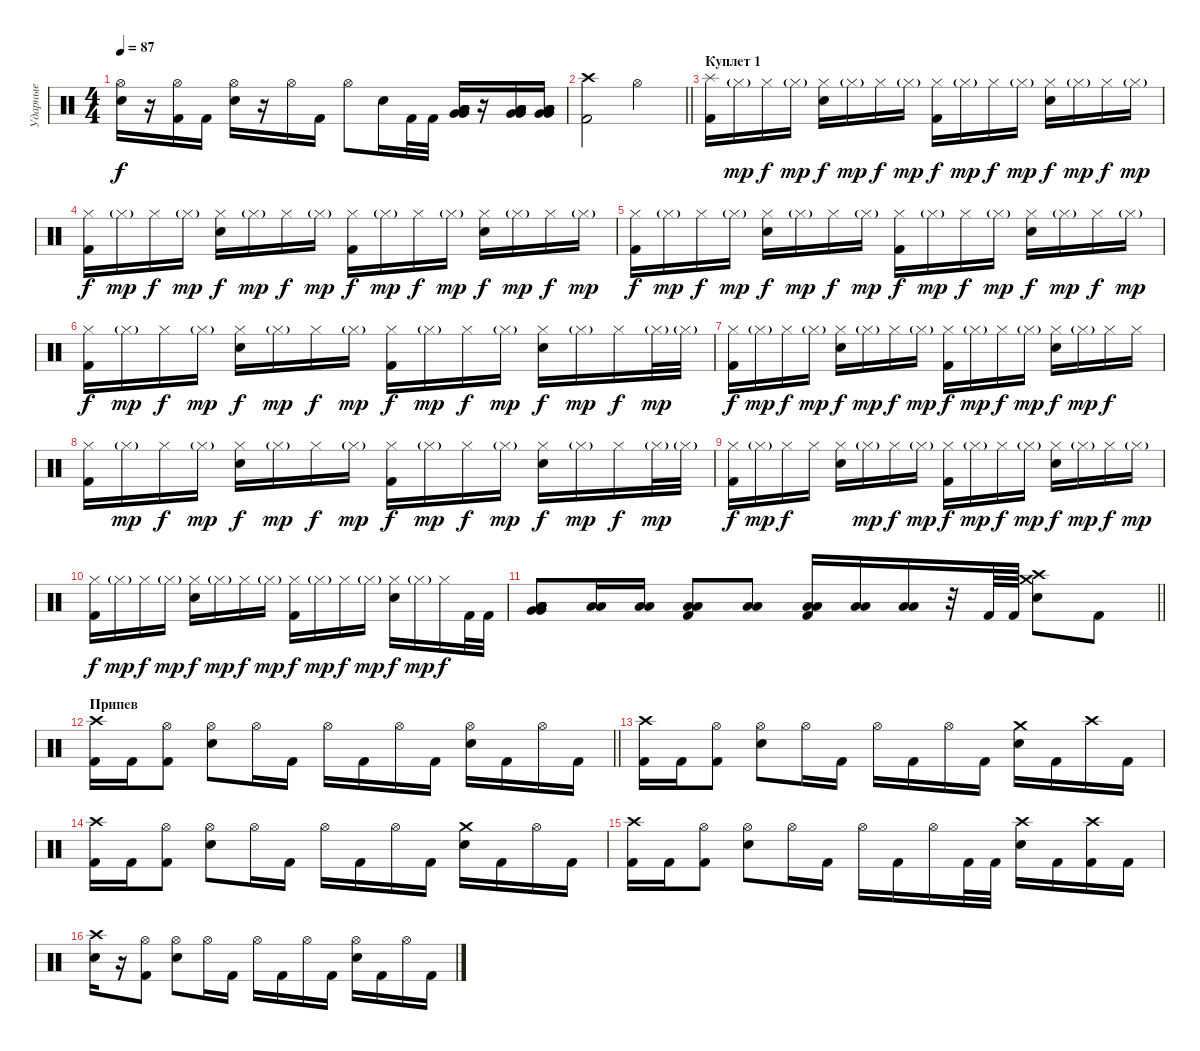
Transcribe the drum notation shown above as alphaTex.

\track ("Ударные" "Ударные") {instrument percussion}
\staff {score}
\articulation defaults
\ts (4 4)
\tempo 87
\clef neutral
\ks c
("Hi-Hat (open)" "Snare (hit) 2").16{dy f} r.16 ("Hi-Hat (open)" "Kick (hit) 2").16 "Kick (hit) 2".16 ("Hi-Hat (open)" "Snare (hit) 2").16 r.16 "Hi-Hat (open)".16 "Kick (hit) 2".16 "Hi-Hat (open)".8 "Snare (hit) 2".16 "Kick (hit) 2".32 "Kick (hit) 2".32 ("Low Tom (hit)" "Low Tom (hit)" "Very Low Tom (hit)" "Very Low Tom (hit)" "Low Floor Tom (hit)" "Low Floor Tom (hit)").16 r.16 ("Low Tom (hit)" "Low Tom (hit)" "Very Low Tom (hit)" "Very Low Tom (hit)" "Low Floor Tom (hit)" "Low Floor Tom (hit)").16 ("Low Tom (hit)" "Low Tom (hit)" "Very Low Tom (hit)" "Very Low Tom (hit)" "Low Floor Tom (hit)" "Low Floor Tom (hit)").16 |
\barLineRight lightlight
("Crash high (hit)" "Kick (hit) 2").2 "Hi-Hat (open)".2 |
\section ("" "Куплет 1")
("Splash (hit)" "Kick (hit) 2").16 "Hi-Hat (closed)"{g}.16{dy mp} "Hi-Hat (closed)".16{dy f} "Hi-Hat (closed)"{g}.16{dy mp} ("Hi-Hat (closed)" "Snare (hit) 2").16{dy f} "Hi-Hat (closed)"{g}.16{dy mp} "Hi-Hat (closed)".16{dy f} "Hi-Hat (closed)"{g}.16{dy mp} ("Hi-Hat (closed)" "Kick (hit) 2").16{dy f} "Hi-Hat (closed)"{g}.16{dy mp} "Hi-Hat (closed)".16{dy f} "Hi-Hat (closed)"{g}.16{dy mp} ("Hi-Hat (closed)" "Snare (hit) 2").16{dy f} "Hi-Hat (closed)"{g}.16{dy mp} "Hi-Hat (closed)".16{dy f} "Hi-Hat (closed)"{g}.16{dy mp} |
("Hi-Hat (closed)" "Kick (hit) 2").16{dy f} "Hi-Hat (closed)"{g}.16{dy mp} "Hi-Hat (closed)".16{dy f} "Hi-Hat (closed)"{g}.16{dy mp} ("Hi-Hat (closed)" "Snare (hit) 2").16{dy f} "Hi-Hat (closed)"{g}.16{dy mp} "Hi-Hat (closed)".16{dy f} "Hi-Hat (closed)"{g}.16{dy mp} ("Hi-Hat (closed)" "Kick (hit) 2").16{dy f} "Hi-Hat (closed)"{g}.16{dy mp} "Hi-Hat (closed)".16{dy f} "Hi-Hat (closed)"{g}.16{dy mp} ("Hi-Hat (closed)" "Snare (hit) 2").16{dy f} "Hi-Hat (closed)"{g}.16{dy mp} "Hi-Hat (closed)".16{dy f} "Hi-Hat (closed)"{g}.16{dy mp} |
("Hi-Hat (closed)" "Kick (hit) 2").16{dy f} "Hi-Hat (closed)"{g}.16{dy mp} "Hi-Hat (closed)".16{dy f} "Hi-Hat (closed)"{g}.16{dy mp} ("Hi-Hat (closed)" "Snare (hit) 2").16{dy f} "Hi-Hat (closed)"{g}.16{dy mp} "Hi-Hat (closed)".16{dy f} "Hi-Hat (closed)"{g}.16{dy mp} ("Hi-Hat (closed)" "Kick (hit) 2").16{dy f} "Hi-Hat (closed)"{g}.16{dy mp} "Hi-Hat (closed)".16{dy f} "Hi-Hat (closed)"{g}.16{dy mp} ("Hi-Hat (closed)" "Snare (hit) 2").16{dy f} "Hi-Hat (closed)"{g}.16{dy mp} "Hi-Hat (closed)".16{dy f} "Hi-Hat (closed)"{g}.16{dy mp} |
("Hi-Hat (closed)" "Kick (hit) 2").16{dy f} "Hi-Hat (closed)"{g}.16{dy mp} "Hi-Hat (closed)".16{dy f} "Hi-Hat (closed)"{g}.16{dy mp} ("Hi-Hat (closed)" "Snare (hit) 2").16{dy f} "Hi-Hat (closed)"{g}.16{dy mp} "Hi-Hat (closed)".16{dy f} "Hi-Hat (closed)"{g}.16{dy mp} ("Hi-Hat (closed)" "Kick (hit) 2").16{dy f} "Hi-Hat (closed)"{g}.16{dy mp} "Hi-Hat (closed)".16{dy f} "Hi-Hat (closed)"{g}.16{dy mp} ("Hi-Hat (closed)" "Snare (hit) 2").16{dy f} "Hi-Hat (closed)"{g}.16{dy mp} "Hi-Hat (closed)".16{dy f} "Hi-Hat (closed)"{g}.32{dy mp} "Hi-Hat (closed)"{g}.32 |
("Hi-Hat (closed)" "Kick (hit) 2").16{dy f} "Hi-Hat (closed)"{g}.16{dy mp} "Hi-Hat (closed)".16{dy f} "Hi-Hat (closed)"{g}.16{dy mp} ("Hi-Hat (closed)" "Snare (hit) 2").16{dy f} "Hi-Hat (closed)"{g}.16{dy mp} "Hi-Hat (closed)".16{dy f} "Hi-Hat (closed)"{g}.16{dy mp} ("Hi-Hat (closed)" "Kick (hit) 2").16{dy f} "Hi-Hat (closed)"{g}.16{dy mp} "Hi-Hat (closed)".16{dy f} "Hi-Hat (closed)"{g}.16{dy mp} ("Hi-Hat (closed)" "Snare (hit) 2").16{dy f} "Hi-Hat (closed)"{g}.16{dy mp} "Hi-Hat (closed)".16{dy f} "Hi-Hat (closed)".16 |
("Hi-Hat (closed)" "Kick (hit) 2").16 "Hi-Hat (closed)"{g}.16{dy mp} "Hi-Hat (closed)".16{dy f} "Hi-Hat (closed)"{g}.16{dy mp} ("Hi-Hat (closed)" "Snare (hit) 2").16{dy f} "Hi-Hat (closed)"{g}.16{dy mp} "Hi-Hat (closed)".16{dy f} "Hi-Hat (closed)"{g}.16{dy mp} ("Hi-Hat (closed)" "Kick (hit) 2").16{dy f} "Hi-Hat (closed)"{g}.16{dy mp} "Hi-Hat (closed)".16{dy f} "Hi-Hat (closed)"{g}.16{dy mp} ("Hi-Hat (closed)" "Snare (hit) 2").16{dy f} "Hi-Hat (closed)"{g}.16{dy mp} "Hi-Hat (closed)".16{dy f} "Hi-Hat (closed)"{g}.32{dy mp} "Hi-Hat (closed)"{g}.32 |
("Hi-Hat (closed)" "Kick (hit) 2").16{dy f} "Hi-Hat (closed)"{g}.16{dy mp} "Hi-Hat (closed)".16{dy f} "Hi-Hat (closed)".16 ("Hi-Hat (closed)" "Snare (hit) 2").16 "Hi-Hat (closed)"{g}.16{dy mp} "Hi-Hat (closed)".16{dy f} "Hi-Hat (closed)"{g}.16{dy mp} ("Hi-Hat (closed)" "Kick (hit) 2").16{dy f} "Hi-Hat (closed)"{g}.16{dy mp} "Hi-Hat (closed)".16{dy f} "Hi-Hat (closed)"{g}.16{dy mp} ("Hi-Hat (closed)" "Snare (hit) 2").16{dy f} "Hi-Hat (closed)"{g}.16{dy mp} "Hi-Hat (closed)".16{dy f} "Hi-Hat (closed)"{g}.16{dy mp} |
("Hi-Hat (closed)" "Kick (hit) 2").16{dy f} "Hi-Hat (closed)"{g}.16{dy mp} "Hi-Hat (closed)".16{dy f} "Hi-Hat (closed)"{g}.16{dy mp} ("Hi-Hat (closed)" "Snare (hit) 2").16{dy f} "Hi-Hat (closed)"{g}.16{dy mp} "Hi-Hat (closed)".16{dy f} "Hi-Hat (closed)"{g}.16{dy mp} ("Hi-Hat (closed)" "Kick (hit) 2").16{dy f} "Hi-Hat (closed)"{g}.16{dy mp} "Hi-Hat (closed)".16{dy f} "Hi-Hat (closed)"{g}.16{dy mp} ("Hi-Hat (closed)" "Snare (hit) 2").16{dy f} "Hi-Hat (closed)"{g}.16{dy mp} "Hi-Hat (closed)".16{dy f} "Kick (hit) 2".32 "Kick (hit) 2".32 |
\barLineRight lightlight
("Low Tom (hit)" "Low Tom (hit)" "Very Low Tom (hit)" "Very Low Tom (hit)" "Low Floor Tom (hit)" "Low Floor Tom (hit)").8 ("Low Tom (hit)" "Low Tom (hit)").16 ("Low Tom (hit)" "Low Tom (hit)").16 ("Low Tom (hit)" "Low Tom (hit)" "Kick (hit) 2").8 ("Low Tom (hit)" "Low Tom (hit)").8 ("Low Tom (hit)" "Low Tom (hit)" "Kick (hit) 2").16 ("Low Tom (hit)" "Low Tom (hit)").16 ("Low Tom (hit)" "Low Tom (hit)").16 r.32 "Kick (hit) 2".64 "Kick (hit) 2".64 ("Snare (hit) 2" "Crash high (hit)" "Crash medium (hit)").8 "Kick (hit) 2".8 |
\section ("" "Припев")
\barLineRight lightlight
("Crash high (hit)" "Kick (hit) 2").16 "Kick (hit) 2".16 ("Hi-Hat (open)" "Kick (hit) 2").8 ("Hi-Hat (open)" "Snare (hit) 2").8 "Hi-Hat (open)".16 "Kick (hit) 2".16 "Hi-Hat (open)".16 "Kick (hit) 2".16 "Hi-Hat (open)".16 "Kick (hit) 2".16 ("Hi-Hat (open)" "Snare (hit) 2").16 "Kick (hit) 2".16 "Hi-Hat (open)".16 "Kick (hit) 2".16 |
("Crash high (hit)" "Kick (hit) 2").16 "Kick (hit) 2".16 ("Hi-Hat (open)" "Kick (hit) 2").8 ("Hi-Hat (open)" "Snare (hit) 2").8 "Hi-Hat (open)".16 "Kick (hit) 2".16 "Hi-Hat (open)".16 "Kick (hit) 2".16 "Hi-Hat (open)".16 "Kick (hit) 2".16 ("Crash medium (hit)" "Snare (hit) 2").16 "Kick (hit) 2".16 "Crash high (hit)".16 "Kick (hit) 2".16 |
("Crash high (hit)" "Kick (hit) 2").16 "Kick (hit) 2".16 ("Hi-Hat (open)" "Kick (hit) 2").8 ("Hi-Hat (open)" "Snare (hit) 2").8 "Hi-Hat (open)".16 "Kick (hit) 2".16 "Hi-Hat (open)".16 "Kick (hit) 2".16 "Hi-Hat (open)".16 "Kick (hit) 2".16 ("Crash medium (hit)" "Snare (hit) 2").16 "Kick (hit) 2".16 "Hi-Hat (open)".16 "Kick (hit) 2".16 |
("Crash high (hit)" "Kick (hit) 2").16 "Kick (hit) 2".16 ("Hi-Hat (open)" "Kick (hit) 2").8 ("Hi-Hat (open)" "Snare (hit) 2").8 "Hi-Hat (open)".16 "Kick (hit) 2".16 "Hi-Hat (open)".16 "Kick (hit) 2".16 "Hi-Hat (open)".16 "Kick (hit) 2".32 "Kick (hit) 2".32 ("Crash high (hit)" "Snare (hit) 2").16 "Kick (hit) 2".16 ("Crash high (hit)" "Kick (hit) 2").16 "Kick (hit) 2".16 |
("Crash high (hit)" "Snare (hit) 2").16 r.16 ("Hi-Hat (open)" "Kick (hit) 2").8 ("Hi-Hat (open)" "Snare (hit) 2").8 "Hi-Hat (open)".16 "Kick (hit) 2".16 "Hi-Hat (open)".16 "Kick (hit) 2".16 "Hi-Hat (open)".16 "Kick (hit) 2".16 ("Hi-Hat (open)" "Snare (hit) 2").16 "Kick (hit) 2".16 "Hi-Hat (open)".16 "Kick (hit) 2".16
